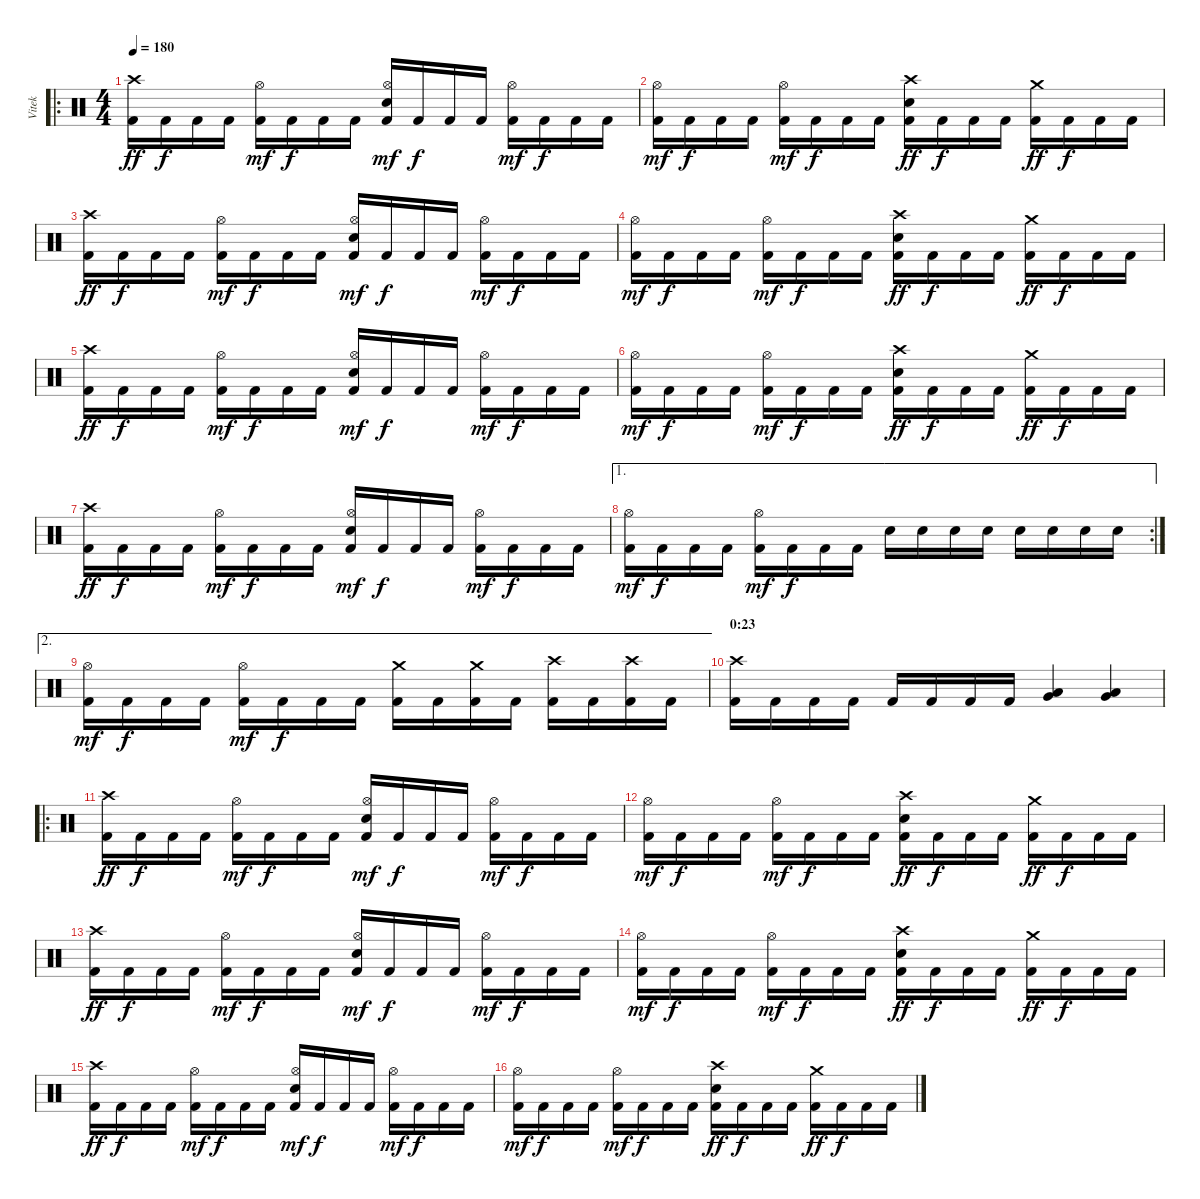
\track ("Vitek" "Vitek") {instrument percussion}
\staff {score}
\articulation defaults
\ro
\ts (4 4)
\tempo 180
\clef neutral
\ks c
("Crash high (hit)" "Kick (hit) 2").16{dy ff} "Kick (hit) 2".16{dy f} "Kick (hit) 2".16 "Kick (hit) 2".16 ("Hi-Hat (open)" "Kick (hit) 2").16{dy mf} "Kick (hit) 2".16{dy f} "Kick (hit) 2".16 "Kick (hit) 2".16 ("Hi-Hat (open)" "Electric Snare (hit)" "Kick (hit) 2").16{dy mf} "Kick (hit) 2".16{dy f} "Kick (hit) 2".16 "Kick (hit) 2".16 ("Hi-Hat (open)" "Kick (hit) 2").16{dy mf} "Kick (hit) 2".16{dy f} "Kick (hit) 2".16 "Kick (hit) 2".16 |
("Hi-Hat (open)" "Kick (hit) 2").16{dy mf} "Kick (hit) 2".16{dy f} "Kick (hit) 2".16 "Kick (hit) 2".16 ("Hi-Hat (open)" "Kick (hit) 2").16{dy mf} "Kick (hit) 2".16{dy f} "Kick (hit) 2".16 "Kick (hit) 2".16 ("Crash high (hit)" "Electric Snare (hit)" "Kick (hit) 2").16{dy ff} "Kick (hit) 2".16{dy f} "Kick (hit) 2".16 "Kick (hit) 2".16 ("Crash medium (hit)" "Kick (hit) 2").16{dy ff} "Kick (hit) 2".16{dy f} "Kick (hit) 2".16 "Kick (hit) 2".16 |
("Crash high (hit)" "Kick (hit) 2").16{dy ff} "Kick (hit) 2".16{dy f} "Kick (hit) 2".16 "Kick (hit) 2".16 ("Hi-Hat (open)" "Kick (hit) 2").16{dy mf} "Kick (hit) 2".16{dy f} "Kick (hit) 2".16 "Kick (hit) 2".16 ("Hi-Hat (open)" "Electric Snare (hit)" "Kick (hit) 2").16{dy mf} "Kick (hit) 2".16{dy f} "Kick (hit) 2".16 "Kick (hit) 2".16 ("Hi-Hat (open)" "Kick (hit) 2").16{dy mf} "Kick (hit) 2".16{dy f} "Kick (hit) 2".16 "Kick (hit) 2".16 |
("Hi-Hat (open)" "Kick (hit) 2").16{dy mf} "Kick (hit) 2".16{dy f} "Kick (hit) 2".16 "Kick (hit) 2".16 ("Hi-Hat (open)" "Kick (hit) 2").16{dy mf} "Kick (hit) 2".16{dy f} "Kick (hit) 2".16 "Kick (hit) 2".16 ("Crash high (hit)" "Electric Snare (hit)" "Kick (hit) 2").16{dy ff} "Kick (hit) 2".16{dy f} "Kick (hit) 2".16 "Kick (hit) 2".16 ("Crash medium (hit)" "Kick (hit) 2").16{dy ff} "Kick (hit) 2".16{dy f} "Kick (hit) 2".16 "Kick (hit) 2".16 |
("Crash high (hit)" "Kick (hit) 2").16{dy ff} "Kick (hit) 2".16{dy f} "Kick (hit) 2".16 "Kick (hit) 2".16 ("Hi-Hat (open)" "Kick (hit) 2").16{dy mf} "Kick (hit) 2".16{dy f} "Kick (hit) 2".16 "Kick (hit) 2".16 ("Hi-Hat (open)" "Electric Snare (hit)" "Kick (hit) 2").16{dy mf} "Kick (hit) 2".16{dy f} "Kick (hit) 2".16 "Kick (hit) 2".16 ("Hi-Hat (open)" "Kick (hit) 2").16{dy mf} "Kick (hit) 2".16{dy f} "Kick (hit) 2".16 "Kick (hit) 2".16 |
("Hi-Hat (open)" "Kick (hit) 2").16{dy mf} "Kick (hit) 2".16{dy f} "Kick (hit) 2".16 "Kick (hit) 2".16 ("Hi-Hat (open)" "Kick (hit) 2").16{dy mf} "Kick (hit) 2".16{dy f} "Kick (hit) 2".16 "Kick (hit) 2".16 ("Crash high (hit)" "Electric Snare (hit)" "Kick (hit) 2").16{dy ff} "Kick (hit) 2".16{dy f} "Kick (hit) 2".16 "Kick (hit) 2".16 ("Crash medium (hit)" "Kick (hit) 2").16{dy ff} "Kick (hit) 2".16{dy f} "Kick (hit) 2".16 "Kick (hit) 2".16 |
("Crash high (hit)" "Kick (hit) 2").16{dy ff} "Kick (hit) 2".16{dy f} "Kick (hit) 2".16 "Kick (hit) 2".16 ("Hi-Hat (open)" "Kick (hit) 2").16{dy mf} "Kick (hit) 2".16{dy f} "Kick (hit) 2".16 "Kick (hit) 2".16 ("Hi-Hat (open)" "Electric Snare (hit)" "Kick (hit) 2").16{dy mf} "Kick (hit) 2".16{dy f} "Kick (hit) 2".16 "Kick (hit) 2".16 ("Hi-Hat (open)" "Kick (hit) 2").16{dy mf} "Kick (hit) 2".16{dy f} "Kick (hit) 2".16 "Kick (hit) 2".16 |
\ae 1
\rc 2
("Hi-Hat (open)" "Kick (hit) 2").16{dy mf} "Kick (hit) 2".16{dy f} "Kick (hit) 2".16 "Kick (hit) 2".16 ("Hi-Hat (open)" "Kick (hit) 2").16{dy mf} "Kick (hit) 2".16{dy f} "Kick (hit) 2".16 "Kick (hit) 2".16 "Electric Snare (hit)".16 "Electric Snare (hit)".16 "Electric Snare (hit)".16 "Electric Snare (hit)".16 "Electric Snare (hit)".16 "Electric Snare (hit)".16 "Electric Snare (hit)".16 "Electric Snare (hit)".16 |
\ae 2
("Hi-Hat (open)" "Kick (hit) 2").16{dy mf} "Kick (hit) 2".16{dy f} "Kick (hit) 2".16 "Kick (hit) 2".16 ("Hi-Hat (open)" "Kick (hit) 2").16{dy mf} "Kick (hit) 2".16{dy f} "Kick (hit) 2".16 "Kick (hit) 2".16 ("Crash medium (hit)" "Kick (hit) 2").16 "Kick (hit) 2".16 ("Crash medium (hit)" "Kick (hit) 2").16 "Kick (hit) 2".16 ("Crash high (hit)" "Kick (hit) 2").16 "Kick (hit) 2".16 ("Crash high (hit)" "Kick (hit) 2").16 "Kick (hit) 2".16 |
\section ("" "0:23")
("Crash high (hit)" "Kick (hit) 2").16 "Kick (hit) 2".16 "Kick (hit) 2".16 "Kick (hit) 2".16 "Kick (hit) 2".16 "Kick (hit) 2".16 "Kick (hit) 2".16 "Kick (hit) 2".16 ("Low Tom (hit)" "Very Low Tom (hit)").4 ("Very Low Tom (hit)" "Low Floor Tom (hit)").4 |
\ro
("Crash high (hit)" "Kick (hit) 2").16{dy ff} "Kick (hit) 2".16{dy f} "Kick (hit) 2".16 "Kick (hit) 2".16 ("Hi-Hat (open)" "Kick (hit) 2").16{dy mf} "Kick (hit) 2".16{dy f} "Kick (hit) 2".16 "Kick (hit) 2".16 ("Hi-Hat (open)" "Electric Snare (hit)" "Kick (hit) 2").16{dy mf} "Kick (hit) 2".16{dy f} "Kick (hit) 2".16 "Kick (hit) 2".16 ("Hi-Hat (open)" "Kick (hit) 2").16{dy mf} "Kick (hit) 2".16{dy f} "Kick (hit) 2".16 "Kick (hit) 2".16 |
("Hi-Hat (open)" "Kick (hit) 2").16{dy mf} "Kick (hit) 2".16{dy f} "Kick (hit) 2".16 "Kick (hit) 2".16 ("Hi-Hat (open)" "Kick (hit) 2").16{dy mf} "Kick (hit) 2".16{dy f} "Kick (hit) 2".16 "Kick (hit) 2".16 ("Crash high (hit)" "Electric Snare (hit)" "Kick (hit) 2").16{dy ff} "Kick (hit) 2".16{dy f} "Kick (hit) 2".16 "Kick (hit) 2".16 ("Crash medium (hit)" "Kick (hit) 2").16{dy ff} "Kick (hit) 2".16{dy f} "Kick (hit) 2".16 "Kick (hit) 2".16 |
("Crash high (hit)" "Kick (hit) 2").16{dy ff} "Kick (hit) 2".16{dy f} "Kick (hit) 2".16 "Kick (hit) 2".16 ("Hi-Hat (open)" "Kick (hit) 2").16{dy mf} "Kick (hit) 2".16{dy f} "Kick (hit) 2".16 "Kick (hit) 2".16 ("Hi-Hat (open)" "Electric Snare (hit)" "Kick (hit) 2").16{dy mf} "Kick (hit) 2".16{dy f} "Kick (hit) 2".16 "Kick (hit) 2".16 ("Hi-Hat (open)" "Kick (hit) 2").16{dy mf} "Kick (hit) 2".16{dy f} "Kick (hit) 2".16 "Kick (hit) 2".16 |
("Hi-Hat (open)" "Kick (hit) 2").16{dy mf} "Kick (hit) 2".16{dy f} "Kick (hit) 2".16 "Kick (hit) 2".16 ("Hi-Hat (open)" "Kick (hit) 2").16{dy mf} "Kick (hit) 2".16{dy f} "Kick (hit) 2".16 "Kick (hit) 2".16 ("Crash high (hit)" "Electric Snare (hit)" "Kick (hit) 2").16{dy ff} "Kick (hit) 2".16{dy f} "Kick (hit) 2".16 "Kick (hit) 2".16 ("Crash medium (hit)" "Kick (hit) 2").16{dy ff} "Kick (hit) 2".16{dy f} "Kick (hit) 2".16 "Kick (hit) 2".16 |
("Crash high (hit)" "Kick (hit) 2").16{dy ff} "Kick (hit) 2".16{dy f} "Kick (hit) 2".16 "Kick (hit) 2".16 ("Hi-Hat (open)" "Kick (hit) 2").16{dy mf} "Kick (hit) 2".16{dy f} "Kick (hit) 2".16 "Kick (hit) 2".16 ("Hi-Hat (open)" "Electric Snare (hit)" "Kick (hit) 2").16{dy mf} "Kick (hit) 2".16{dy f} "Kick (hit) 2".16 "Kick (hit) 2".16 ("Hi-Hat (open)" "Kick (hit) 2").16{dy mf} "Kick (hit) 2".16{dy f} "Kick (hit) 2".16 "Kick (hit) 2".16 |
("Hi-Hat (open)" "Kick (hit) 2").16{dy mf} "Kick (hit) 2".16{dy f} "Kick (hit) 2".16 "Kick (hit) 2".16 ("Hi-Hat (open)" "Kick (hit) 2").16{dy mf} "Kick (hit) 2".16{dy f} "Kick (hit) 2".16 "Kick (hit) 2".16 ("Crash high (hit)" "Electric Snare (hit)" "Kick (hit) 2").16{dy ff} "Kick (hit) 2".16{dy f} "Kick (hit) 2".16 "Kick (hit) 2".16 ("Crash medium (hit)" "Kick (hit) 2").16{dy ff} "Kick (hit) 2".16{dy f} "Kick (hit) 2".16 "Kick (hit) 2".16
